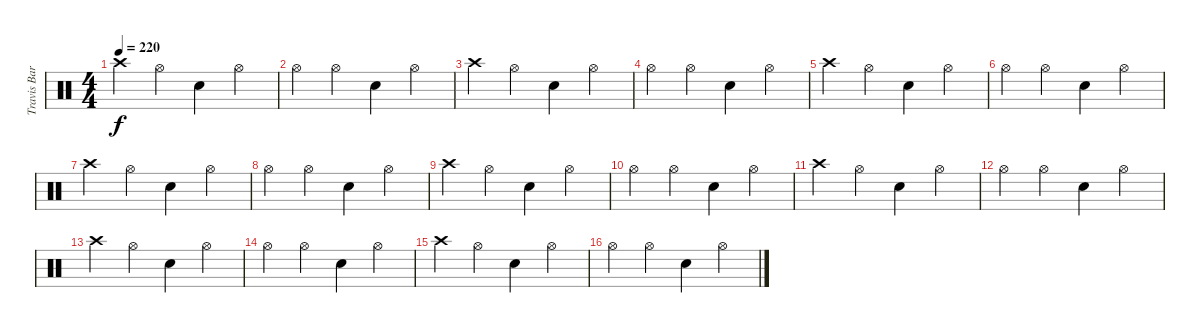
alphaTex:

\track ("Travis Barker" "Travis Bar") {instrument percussion}
\staff {score}
\articulation defaults
\ts (4 4)
\tempo 220
\clef neutral
\ks c "Crash high (hit)".4{dy f} "Hi-Hat (open)".4 "Snare (hit) 2".4 "Hi-Hat (open)".4
|
"Hi-Hat (open)".4 "Hi-Hat (open)".4 "Snare (hit) 2".4 "Hi-Hat (open)".4 |
"Crash high (hit)".4 "Hi-Hat (open)".4 "Snare (hit) 2".4 "Hi-Hat (open)".4 |
"Hi-Hat (open)".4 "Hi-Hat (open)".4 "Snare (hit) 2".4 "Hi-Hat (open)".4 |
"Crash high (hit)".4 "Hi-Hat (open)".4 "Snare (hit) 2".4 "Hi-Hat (open)".4 |
"Hi-Hat (open)".4 "Hi-Hat (open)".4 "Snare (hit) 2".4 "Hi-Hat (open)".4 |
"Crash high (hit)".4 "Hi-Hat (open)".4 "Snare (hit) 2".4 "Hi-Hat (open)".4 |
"Hi-Hat (open)".4 "Hi-Hat (open)".4 "Snare (hit) 2".4 "Hi-Hat (open)".4 |
"Crash high (hit)".4 "Hi-Hat (open)".4 "Snare (hit) 2".4 "Hi-Hat (open)".4 |
"Hi-Hat (open)".4 "Hi-Hat (open)".4 "Snare (hit) 2".4 "Hi-Hat (open)".4 |
"Crash high (hit)".4 "Hi-Hat (open)".4 "Snare (hit) 2".4 "Hi-Hat (open)".4 |
"Hi-Hat (open)".4 "Hi-Hat (open)".4 "Snare (hit) 2".4 "Hi-Hat (open)".4 |
"Crash high (hit)".4 "Hi-Hat (open)".4 "Snare (hit) 2".4 "Hi-Hat (open)".4 |
"Hi-Hat (open)".4 "Hi-Hat (open)".4 "Snare (hit) 2".4 "Hi-Hat (open)".4 |
"Crash high (hit)".4 "Hi-Hat (open)".4 "Snare (hit) 2".4 "Hi-Hat (open)".4 |
"Hi-Hat (open)".4 "Hi-Hat (open)".4 "Snare (hit) 2".4 "Hi-Hat (open)".4
